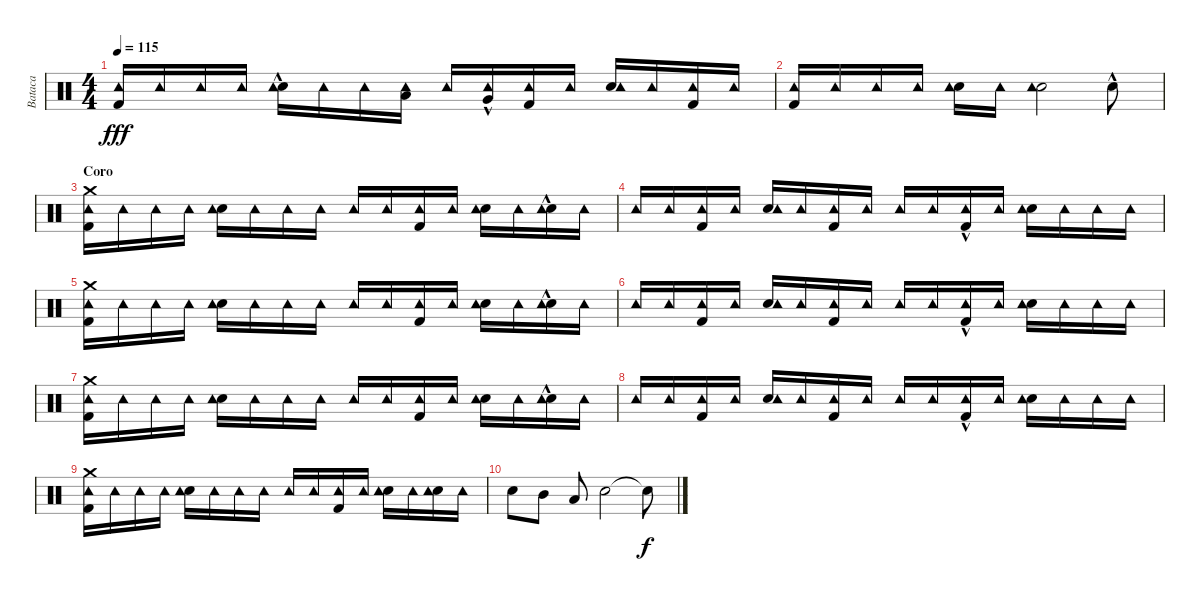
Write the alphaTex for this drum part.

\track ("Bataca" "Bataca") {instrument percussion}
\staff {score}
\articulation defaults
\ts (4 4)
\tempo 115
\clef neutral
\ks c
("Kick (hit) 2" "Tambourine (hit)").16{dy fff} "Tambourine (hit)".16 "Tambourine (hit)".16 "Tambourine (hit)".16 ("Snare (hit) 2"{hac} "Tambourine (hit)").16 "Tambourine (hit)".16 "Tambourine (hit)".16 ("Low Tom (hit)" "Tambourine (hit)").16 "Tambourine (hit)".16 ("Very Low Tom (hit)"{hac} "Tambourine (hit)").16 ("Kick (hit) 2" "Tambourine (hit)").16 "Tambourine (hit)".16 ("Snare (hit) 2" "Tambourine (hit)").16 "Tambourine (hit)".16 ("Kick (hit) 2" "Tambourine (hit)").16 "Tambourine (hit)".16 |
("Kick (hit) 2" "Tambourine (hit)").16 "Tambourine (hit)".16 "Tambourine (hit)".16 "Tambourine (hit)".16 ("Snare (hit) 2" "Tambourine (hit)").16 "Tambourine (hit)".16 ("Snare (hit) 2" "Tambourine (hit)").2 "Snare (hit) 2"{hac}.8 |
\section ("" "Coro")
("Kick (hit) 2" "Tambourine (hit)" "Crash medium (hit)").16 "Tambourine (hit)".16 "Tambourine (hit)".16 "Tambourine (hit)".16 ("Snare (hit) 2" "Tambourine (hit)").16 "Tambourine (hit)".16 "Tambourine (hit)".16 "Tambourine (hit)".16 "Tambourine (hit)".16 "Tambourine (hit)".16 ("Kick (hit) 2" "Tambourine (hit)").16 "Tambourine (hit)".16 ("Snare (hit) 2" "Tambourine (hit)").16 "Tambourine (hit)".16 ("Snare (hit) 2"{hac} "Tambourine (hit)").16 "Tambourine (hit)".16 |
"Tambourine (hit)".16 "Tambourine (hit)".16 ("Kick (hit) 2" "Tambourine (hit)").16 "Tambourine (hit)".16 ("Snare (hit) 2" "Tambourine (hit)").16 "Tambourine (hit)".16 ("Kick (hit) 2" "Tambourine (hit)").16 "Tambourine (hit)".16 "Tambourine (hit)".16 "Tambourine (hit)".16 ("Kick (hit) 2"{hac} "Tambourine (hit)").16 "Tambourine (hit)".16 ("Snare (hit) 2" "Tambourine (hit)").16 "Tambourine (hit)".16 "Tambourine (hit)".16 "Tambourine (hit)".16 |
("Kick (hit) 2" "Tambourine (hit)" "Crash medium (hit)").16 "Tambourine (hit)".16 "Tambourine (hit)".16 "Tambourine (hit)".16 ("Snare (hit) 2" "Tambourine (hit)").16 "Tambourine (hit)".16 "Tambourine (hit)".16 "Tambourine (hit)".16 "Tambourine (hit)".16 "Tambourine (hit)".16 ("Kick (hit) 2" "Tambourine (hit)").16 "Tambourine (hit)".16 ("Snare (hit) 2" "Tambourine (hit)").16 "Tambourine (hit)".16 ("Snare (hit) 2"{hac} "Tambourine (hit)").16 "Tambourine (hit)".16 |
"Tambourine (hit)".16 "Tambourine (hit)".16 ("Kick (hit) 2" "Tambourine (hit)").16 "Tambourine (hit)".16 ("Snare (hit) 2" "Tambourine (hit)").16 "Tambourine (hit)".16 ("Kick (hit) 2" "Tambourine (hit)").16 "Tambourine (hit)".16 "Tambourine (hit)".16 "Tambourine (hit)".16 ("Kick (hit) 2"{hac} "Tambourine (hit)").16 "Tambourine (hit)".16 ("Snare (hit) 2" "Tambourine (hit)").16 "Tambourine (hit)".16 "Tambourine (hit)".16 "Tambourine (hit)".16 |
("Kick (hit) 2" "Tambourine (hit)" "Crash medium (hit)").16 "Tambourine (hit)".16 "Tambourine (hit)".16 "Tambourine (hit)".16 ("Snare (hit) 2" "Tambourine (hit)").16 "Tambourine (hit)".16 "Tambourine (hit)".16 "Tambourine (hit)".16 "Tambourine (hit)".16 "Tambourine (hit)".16 ("Kick (hit) 2" "Tambourine (hit)").16 "Tambourine (hit)".16 ("Snare (hit) 2" "Tambourine (hit)").16 "Tambourine (hit)".16 ("Snare (hit) 2"{hac} "Tambourine (hit)").16 "Tambourine (hit)".16 |
"Tambourine (hit)".16 "Tambourine (hit)".16 ("Kick (hit) 2" "Tambourine (hit)").16 "Tambourine (hit)".16 ("Snare (hit) 2" "Tambourine (hit)").16 "Tambourine (hit)".16 ("Kick (hit) 2" "Tambourine (hit)").16 "Tambourine (hit)".16 "Tambourine (hit)".16 "Tambourine (hit)".16 ("Kick (hit) 2"{hac} "Tambourine (hit)").16 "Tambourine (hit)".16 ("Snare (hit) 2" "Tambourine (hit)").16 "Tambourine (hit)".16 "Tambourine (hit)".16 "Tambourine (hit)".16 |
("Kick (hit) 2" "Tambourine (hit)" "Crash medium (hit)").16 "Tambourine (hit)".16 "Tambourine (hit)".16 "Tambourine (hit)".16 ("Snare (hit) 2" "Tambourine (hit)").16 "Tambourine (hit)".16 "Tambourine (hit)".16 "Tambourine (hit)".16 "Tambourine (hit)".16 "Tambourine (hit)".16 ("Kick (hit) 2" "Tambourine (hit)").16 "Tambourine (hit)".16 ("Snare (hit) 2" "Tambourine (hit)").16 "Tambourine (hit)".16 ("Snare (hit) 2" "Tambourine (hit)").16 "Tambourine (hit)".16 |
"Snare (hit) 2".8 "Mid Tom (hit)".8 "Low Tom (hit)".8 "Snare (hit) 2".2 "Snare (hit)"{t}.8{dy f}
